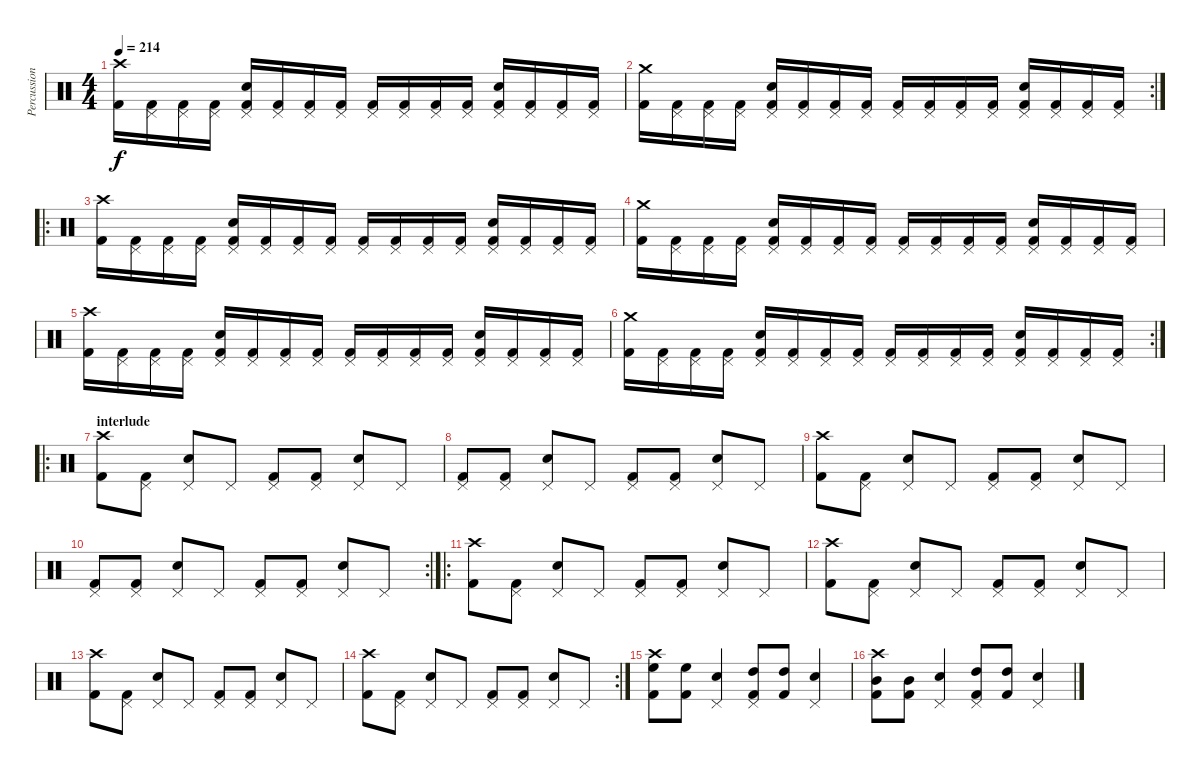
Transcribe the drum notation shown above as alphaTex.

\track ("Percussion" "Percussion") {instrument percussion}
\staff {score}
\articulation defaults
\ts (4 4)
\tempo 214
\clef neutral
\ks c
("Crash high (hit)" "Kick (hit) 2").16{dy f} ("Pedal Hi-Hat (hit)" "Kick (hit) 2").16 ("Pedal Hi-Hat (hit)" "Kick (hit) 2").16 ("Pedal Hi-Hat (hit)" "Kick (hit) 2").16 ("Pedal Hi-Hat (hit)" "Snare (hit) 2" "Kick (hit) 2").16 ("Pedal Hi-Hat (hit)" "Kick (hit) 2").16 ("Pedal Hi-Hat (hit)" "Kick (hit) 2").16 ("Pedal Hi-Hat (hit)" "Kick (hit) 2").16 ("Pedal Hi-Hat (hit)" "Kick (hit) 2").16 ("Pedal Hi-Hat (hit)" "Kick (hit) 2").16 ("Pedal Hi-Hat (hit)" "Kick (hit) 2").16 ("Pedal Hi-Hat (hit)" "Kick (hit) 2").16 ("Pedal Hi-Hat (hit)" "Snare (hit) 2" "Kick (hit) 2").16 ("Pedal Hi-Hat (hit)" "Kick (hit) 2").16 ("Pedal Hi-Hat (hit)" "Kick (hit) 2").16 ("Pedal Hi-Hat (hit)" "Kick (hit) 2").16 |
\rc 2
("Crash medium (hit)" "Kick (hit) 2").16 ("Pedal Hi-Hat (hit)" "Kick (hit) 2").16 ("Pedal Hi-Hat (hit)" "Kick (hit) 2").16 ("Pedal Hi-Hat (hit)" "Kick (hit) 2").16 ("Pedal Hi-Hat (hit)" "Snare (hit) 2" "Kick (hit) 2").16 ("Pedal Hi-Hat (hit)" "Kick (hit) 2").16 ("Pedal Hi-Hat (hit)" "Kick (hit) 2").16 ("Pedal Hi-Hat (hit)" "Kick (hit) 2").16 ("Pedal Hi-Hat (hit)" "Kick (hit) 2").16 ("Pedal Hi-Hat (hit)" "Kick (hit) 2").16 ("Pedal Hi-Hat (hit)" "Kick (hit) 2").16 ("Pedal Hi-Hat (hit)" "Kick (hit) 2").16 ("Pedal Hi-Hat (hit)" "Snare (hit) 2" "Kick (hit) 2").16 ("Pedal Hi-Hat (hit)" "Kick (hit) 2").16 ("Pedal Hi-Hat (hit)" "Kick (hit) 2").16 ("Pedal Hi-Hat (hit)" "Kick (hit) 2").16 |
\ro
("Crash high (hit)" "Kick (hit) 2").16 ("Pedal Hi-Hat (hit)" "Kick (hit) 2").16 ("Pedal Hi-Hat (hit)" "Kick (hit) 2").16 ("Pedal Hi-Hat (hit)" "Kick (hit) 2").16 ("Pedal Hi-Hat (hit)" "Snare (hit) 2" "Kick (hit) 2").16 ("Pedal Hi-Hat (hit)" "Kick (hit) 2").16 ("Pedal Hi-Hat (hit)" "Kick (hit) 2").16 ("Pedal Hi-Hat (hit)" "Kick (hit) 2").16 ("Pedal Hi-Hat (hit)" "Kick (hit) 2").16 ("Pedal Hi-Hat (hit)" "Kick (hit) 2").16 ("Pedal Hi-Hat (hit)" "Kick (hit) 2").16 ("Pedal Hi-Hat (hit)" "Kick (hit) 2").16 ("Pedal Hi-Hat (hit)" "Snare (hit) 2" "Kick (hit) 2").16 ("Pedal Hi-Hat (hit)" "Kick (hit) 2").16 ("Pedal Hi-Hat (hit)" "Kick (hit) 2").16 ("Pedal Hi-Hat (hit)" "Kick (hit) 2").16 |
("Crash medium (hit)" "Kick (hit) 2").16 ("Pedal Hi-Hat (hit)" "Kick (hit) 2").16 ("Pedal Hi-Hat (hit)" "Kick (hit) 2").16 ("Pedal Hi-Hat (hit)" "Kick (hit) 2").16 ("Pedal Hi-Hat (hit)" "Snare (hit) 2" "Kick (hit) 2").16 ("Pedal Hi-Hat (hit)" "Kick (hit) 2").16 ("Pedal Hi-Hat (hit)" "Kick (hit) 2").16 ("Pedal Hi-Hat (hit)" "Kick (hit) 2").16 ("Pedal Hi-Hat (hit)" "Kick (hit) 2").16 ("Pedal Hi-Hat (hit)" "Kick (hit) 2").16 ("Pedal Hi-Hat (hit)" "Kick (hit) 2").16 ("Pedal Hi-Hat (hit)" "Kick (hit) 2").16 ("Pedal Hi-Hat (hit)" "Snare (hit) 2" "Kick (hit) 2").16 ("Pedal Hi-Hat (hit)" "Kick (hit) 2").16 ("Pedal Hi-Hat (hit)" "Kick (hit) 2").16 ("Pedal Hi-Hat (hit)" "Kick (hit) 2").16 |
("Crash high (hit)" "Kick (hit) 2").16 ("Pedal Hi-Hat (hit)" "Kick (hit) 2").16 ("Pedal Hi-Hat (hit)" "Kick (hit) 2").16 ("Pedal Hi-Hat (hit)" "Kick (hit) 2").16 ("Pedal Hi-Hat (hit)" "Snare (hit) 2" "Kick (hit) 2").16 ("Pedal Hi-Hat (hit)" "Kick (hit) 2").16 ("Pedal Hi-Hat (hit)" "Kick (hit) 2").16 ("Pedal Hi-Hat (hit)" "Kick (hit) 2").16 ("Pedal Hi-Hat (hit)" "Kick (hit) 2").16 ("Pedal Hi-Hat (hit)" "Kick (hit) 2").16 ("Pedal Hi-Hat (hit)" "Kick (hit) 2").16 ("Pedal Hi-Hat (hit)" "Kick (hit) 2").16 ("Pedal Hi-Hat (hit)" "Snare (hit) 2" "Kick (hit) 2").16 ("Pedal Hi-Hat (hit)" "Kick (hit) 2").16 ("Pedal Hi-Hat (hit)" "Kick (hit) 2").16 ("Pedal Hi-Hat (hit)" "Kick (hit) 2").16 |
\rc 2
("Crash medium (hit)" "Kick (hit) 2").16 ("Pedal Hi-Hat (hit)" "Kick (hit) 2").16 ("Pedal Hi-Hat (hit)" "Kick (hit) 2").16 ("Pedal Hi-Hat (hit)" "Kick (hit) 2").16 ("Pedal Hi-Hat (hit)" "Snare (hit) 2" "Kick (hit) 2").16 ("Pedal Hi-Hat (hit)" "Kick (hit) 2").16 ("Pedal Hi-Hat (hit)" "Kick (hit) 2").16 ("Pedal Hi-Hat (hit)" "Kick (hit) 2").16 ("Pedal Hi-Hat (hit)" "Kick (hit) 2").16 ("Pedal Hi-Hat (hit)" "Kick (hit) 2").16 ("Pedal Hi-Hat (hit)" "Kick (hit) 2").16 ("Pedal Hi-Hat (hit)" "Kick (hit) 2").16 ("Pedal Hi-Hat (hit)" "Snare (hit) 2" "Kick (hit) 2").16 ("Pedal Hi-Hat (hit)" "Kick (hit) 2").16 ("Pedal Hi-Hat (hit)" "Kick (hit) 2").16 ("Pedal Hi-Hat (hit)" "Kick (hit) 2").16 |
\ro
\section ("" "interlude")
("Crash high (hit)" "Kick (hit) 2").8 ("Pedal Hi-Hat (hit)" "Kick (hit) 2").8 ("Pedal Hi-Hat (hit)" "Snare (hit) 2").8 "Pedal Hi-Hat (hit)".8 ("Pedal Hi-Hat (hit)" "Kick (hit) 2").8 ("Pedal Hi-Hat (hit)" "Kick (hit) 2").8 ("Pedal Hi-Hat (hit)" "Snare (hit) 2").8 "Pedal Hi-Hat (hit)".8 |
("Pedal Hi-Hat (hit)" "Kick (hit) 2").8 ("Pedal Hi-Hat (hit)" "Kick (hit) 2").8 ("Pedal Hi-Hat (hit)" "Snare (hit) 2").8 "Pedal Hi-Hat (hit)".8 ("Pedal Hi-Hat (hit)" "Kick (hit) 2").8 ("Pedal Hi-Hat (hit)" "Kick (hit) 2").8 ("Pedal Hi-Hat (hit)" "Snare (hit) 2").8 "Pedal Hi-Hat (hit)".8 |
("Crash high (hit)" "Kick (hit) 2").8 ("Pedal Hi-Hat (hit)" "Kick (hit) 2").8 ("Pedal Hi-Hat (hit)" "Snare (hit) 2").8 "Pedal Hi-Hat (hit)".8 ("Pedal Hi-Hat (hit)" "Kick (hit) 2").8 ("Pedal Hi-Hat (hit)" "Kick (hit) 2").8 ("Pedal Hi-Hat (hit)" "Snare (hit) 2").8 "Pedal Hi-Hat (hit)".8 |
\rc 2
("Pedal Hi-Hat (hit)" "Kick (hit) 2").8 ("Pedal Hi-Hat (hit)" "Kick (hit) 2").8 ("Pedal Hi-Hat (hit)" "Snare (hit) 2").8 "Pedal Hi-Hat (hit)".8 ("Pedal Hi-Hat (hit)" "Kick (hit) 2").8 ("Pedal Hi-Hat (hit)" "Kick (hit) 2").8 ("Pedal Hi-Hat (hit)" "Snare (hit) 2").8 "Pedal Hi-Hat (hit)".8 |
\ro
("Crash high (hit)" "Kick (hit) 2").8 ("Pedal Hi-Hat (hit)" "Kick (hit) 2").8 ("Pedal Hi-Hat (hit)" "Snare (hit) 2").8 "Pedal Hi-Hat (hit)".8 ("Pedal Hi-Hat (hit)" "Kick (hit) 2").8 ("Pedal Hi-Hat (hit)" "Kick (hit) 2").8 ("Pedal Hi-Hat (hit)" "Snare (hit) 2").8 "Pedal Hi-Hat (hit)".8 |
("Crash high (hit)" "Kick (hit) 2").8 ("Pedal Hi-Hat (hit)" "Kick (hit) 2").8 ("Pedal Hi-Hat (hit)" "Snare (hit) 2").8 "Pedal Hi-Hat (hit)".8 ("Pedal Hi-Hat (hit)" "Kick (hit) 2").8 ("Pedal Hi-Hat (hit)" "Kick (hit) 2").8 ("Pedal Hi-Hat (hit)" "Snare (hit) 2").8 "Pedal Hi-Hat (hit)".8 |
("Crash high (hit)" "Kick (hit) 2").8 ("Pedal Hi-Hat (hit)" "Kick (hit) 2").8 ("Pedal Hi-Hat (hit)" "Snare (hit) 2").8 "Pedal Hi-Hat (hit)".8 ("Pedal Hi-Hat (hit)" "Kick (hit) 2").8 ("Pedal Hi-Hat (hit)" "Kick (hit) 2").8 ("Pedal Hi-Hat (hit)" "Snare (hit) 2").8 "Pedal Hi-Hat (hit)".8 |
\rc 2
("Crash high (hit)" "Kick (hit) 2").8 ("Pedal Hi-Hat (hit)" "Kick (hit) 2").8 ("Pedal Hi-Hat (hit)" "Snare (hit) 2").8 "Pedal Hi-Hat (hit)".8 ("Pedal Hi-Hat (hit)" "Kick (hit) 2").8 ("Pedal Hi-Hat (hit)" "Kick (hit) 2").8 ("Pedal Hi-Hat (hit)" "Snare (hit) 2").8 "Pedal Hi-Hat (hit)".8 |
("Crash high (hit)" "High Floor Tom (hit)" "Kick (hit) 2").8 ("High Floor Tom (hit)" "Kick (hit) 2").8 ("Pedal Hi-Hat (hit)" "Snare (hit) 2").4 ("Pedal Hi-Hat (hit)" "High Tom (hit)" "Kick (hit) 2").8 ("High Tom (hit)" "Kick (hit) 2").8 ("Pedal Hi-Hat (hit)" "Snare (hit) 2").4 |
("Crash high (hit)" "Mid Tom (hit)" "Kick (hit) 2").8 ("Mid Tom (hit)" "Kick (hit) 2").8 ("Pedal Hi-Hat (hit)" "Snare (hit) 2").4 ("Pedal Hi-Hat (hit)" "High Tom (hit)" "Kick (hit) 2").8 ("High Tom (hit)" "Kick (hit) 2").8 ("Pedal Hi-Hat (hit)" "Snare (hit) 2").4
